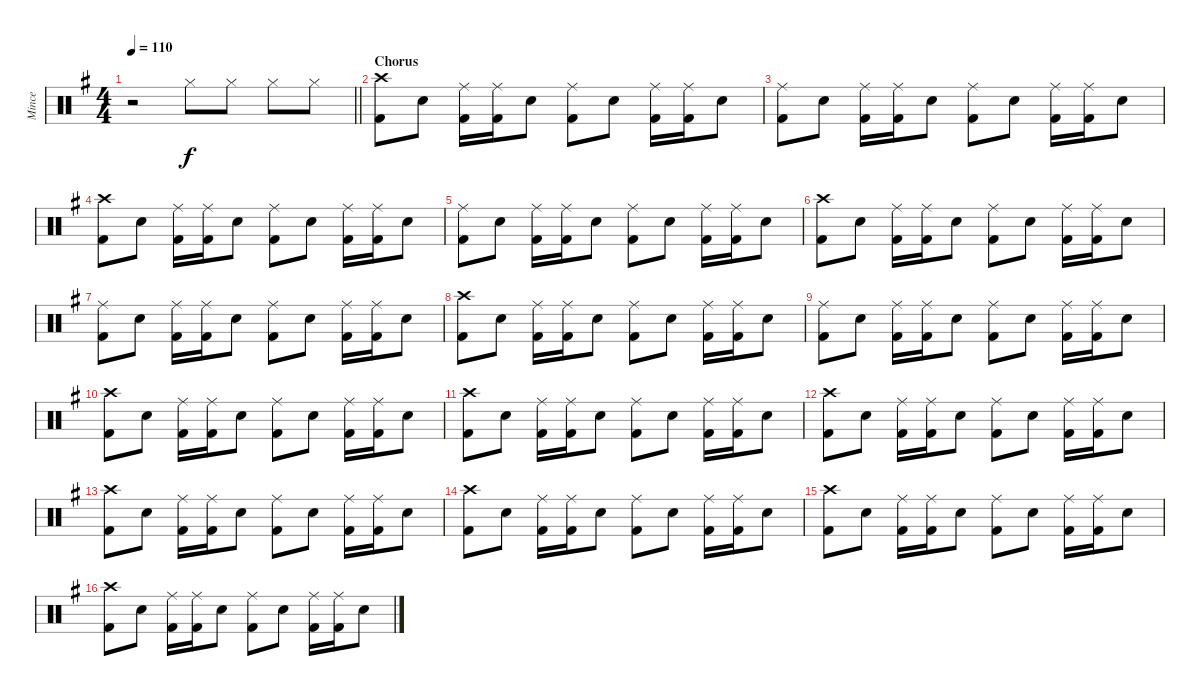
\track ("Mince" "Mince") {instrument percussion}
\staff {score}
\articulation defaults
\ts (4 4)
\tempo 110
\clef neutral
\barLineRight lightlight
\ks g
r.2{dy f} "Hi-Hat (closed)".8 "Hi-Hat (closed)".8 "Hi-Hat (closed)".8 "Hi-Hat (closed)".8 |
\section ("" "Chorus")
("Kick (hit) 2" "Crash high (hit)").8 "Snare (hit) 2".8 ("Kick (hit) 2" "Ride (middle)").16 ("Kick (hit) 2" "Ride (middle)").16 "Snare (hit) 2".8 ("Kick (hit) 2" "Ride (middle)").8 "Snare (hit) 2".8 ("Kick (hit) 2" "Ride (middle)").16 ("Kick (hit) 2" "Ride (middle)").16 "Snare (hit) 2".8 |
("Kick (hit) 2" "Ride (middle)").8 "Snare (hit) 2".8 ("Kick (hit) 2" "Ride (middle)").16 ("Kick (hit) 2" "Ride (middle)").16 "Snare (hit) 2".8 ("Kick (hit) 2" "Ride (middle)").8 "Snare (hit) 2".8 ("Kick (hit) 2" "Ride (middle)").16 ("Kick (hit) 2" "Ride (middle)").16 "Snare (hit) 2".8 |
("Kick (hit) 2" "Crash high (hit)").8 "Snare (hit) 2".8 ("Kick (hit) 2" "Ride (middle)").16 ("Kick (hit) 2" "Ride (middle)").16 "Snare (hit) 2".8 ("Kick (hit) 2" "Ride (middle)").8 "Snare (hit) 2".8 ("Kick (hit) 2" "Ride (middle)").16 ("Kick (hit) 2" "Ride (middle)").16 "Snare (hit) 2".8 |
("Kick (hit) 2" "Ride (middle)").8 "Snare (hit) 2".8 ("Kick (hit) 2" "Ride (middle)").16 ("Kick (hit) 2" "Ride (middle)").16 "Snare (hit) 2".8 ("Kick (hit) 2" "Ride (middle)").8 "Snare (hit) 2".8 ("Kick (hit) 2" "Ride (middle)").16 ("Kick (hit) 2" "Ride (middle)").16 "Snare (hit) 2".8 |
("Kick (hit) 2" "Crash high (hit)").8 "Snare (hit) 2".8 ("Kick (hit) 2" "Ride (middle)").16 ("Kick (hit) 2" "Ride (middle)").16 "Snare (hit) 2".8 ("Kick (hit) 2" "Ride (middle)").8 "Snare (hit) 2".8 ("Kick (hit) 2" "Ride (middle)").16 ("Kick (hit) 2" "Ride (middle)").16 "Snare (hit) 2".8 |
("Kick (hit) 2" "Ride (middle)").8 "Snare (hit) 2".8 ("Kick (hit) 2" "Ride (middle)").16 ("Kick (hit) 2" "Ride (middle)").16 "Snare (hit) 2".8 ("Kick (hit) 2" "Ride (middle)").8 "Snare (hit) 2".8 ("Kick (hit) 2" "Ride (middle)").16 ("Kick (hit) 2" "Ride (middle)").16 "Snare (hit) 2".8 |
("Kick (hit) 2" "Crash high (hit)").8 "Snare (hit) 2".8 ("Kick (hit) 2" "Ride (middle)").16 ("Kick (hit) 2" "Ride (middle)").16 "Snare (hit) 2".8 ("Kick (hit) 2" "Ride (middle)").8 "Snare (hit) 2".8 ("Kick (hit) 2" "Ride (middle)").16 ("Kick (hit) 2" "Ride (middle)").16 "Snare (hit) 2".8 |
("Kick (hit) 2" "Ride (middle)").8 "Snare (hit) 2".8 ("Kick (hit) 2" "Ride (middle)").16 ("Kick (hit) 2" "Ride (middle)").16 "Snare (hit) 2".8 ("Kick (hit) 2" "Ride (middle)").8 "Snare (hit) 2".8 ("Kick (hit) 2" "Ride (middle)").16 ("Kick (hit) 2" "Ride (middle)").16 "Snare (hit) 2".8 |
("Kick (hit) 2" "Crash high (hit)").8 "Snare (hit) 2".8 ("Kick (hit) 2" "Ride (middle)").16 ("Kick (hit) 2" "Ride (middle)").16 "Snare (hit) 2".8 ("Kick (hit) 2" "Ride (middle)").8 "Snare (hit) 2".8 ("Kick (hit) 2" "Ride (middle)").16 ("Kick (hit) 2" "Ride (middle)").16 "Snare (hit) 2".8 |
("Kick (hit) 2" "Crash high (hit)").8 "Snare (hit) 2".8 ("Kick (hit) 2" "Ride (middle)").16 ("Kick (hit) 2" "Ride (middle)").16 "Snare (hit) 2".8 ("Kick (hit) 2" "Ride (middle)").8 "Snare (hit) 2".8 ("Kick (hit) 2" "Ride (middle)").16 ("Kick (hit) 2" "Ride (middle)").16 "Snare (hit) 2".8 |
("Kick (hit) 2" "Crash high (hit)").8 "Snare (hit) 2".8 ("Kick (hit) 2" "Ride (middle)").16 ("Kick (hit) 2" "Ride (middle)").16 "Snare (hit) 2".8 ("Kick (hit) 2" "Ride (middle)").8 "Snare (hit) 2".8 ("Kick (hit) 2" "Ride (middle)").16 ("Kick (hit) 2" "Ride (middle)").16 "Snare (hit) 2".8 |
("Kick (hit) 2" "Crash high (hit)").8 "Snare (hit) 2".8 ("Kick (hit) 2" "Ride (middle)").16 ("Kick (hit) 2" "Ride (middle)").16 "Snare (hit) 2".8 ("Kick (hit) 2" "Ride (middle)").8 "Snare (hit) 2".8 ("Kick (hit) 2" "Ride (middle)").16 ("Kick (hit) 2" "Ride (middle)").16 "Snare (hit) 2".8 |
("Kick (hit) 2" "Crash high (hit)").8 "Snare (hit) 2".8 ("Kick (hit) 2" "Ride (middle)").16 ("Kick (hit) 2" "Ride (middle)").16 "Snare (hit) 2".8 ("Kick (hit) 2" "Ride (middle)").8 "Snare (hit) 2".8 ("Kick (hit) 2" "Ride (middle)").16 ("Kick (hit) 2" "Ride (middle)").16 "Snare (hit) 2".8 |
("Kick (hit) 2" "Crash high (hit)").8 "Snare (hit) 2".8 ("Kick (hit) 2" "Ride (middle)").16 ("Kick (hit) 2" "Ride (middle)").16 "Snare (hit) 2".8 ("Kick (hit) 2" "Ride (middle)").8 "Snare (hit) 2".8 ("Kick (hit) 2" "Ride (middle)").16 ("Kick (hit) 2" "Ride (middle)").16 "Snare (hit) 2".8 |
("Kick (hit) 2" "Crash high (hit)").8 "Snare (hit) 2".8 ("Kick (hit) 2" "Ride (middle)").16 ("Kick (hit) 2" "Ride (middle)").16 "Snare (hit) 2".8 ("Kick (hit) 2" "Ride (middle)").8 "Snare (hit) 2".8 ("Kick (hit) 2" "Ride (middle)").16 ("Kick (hit) 2" "Ride (middle)").16 "Snare (hit) 2".8
